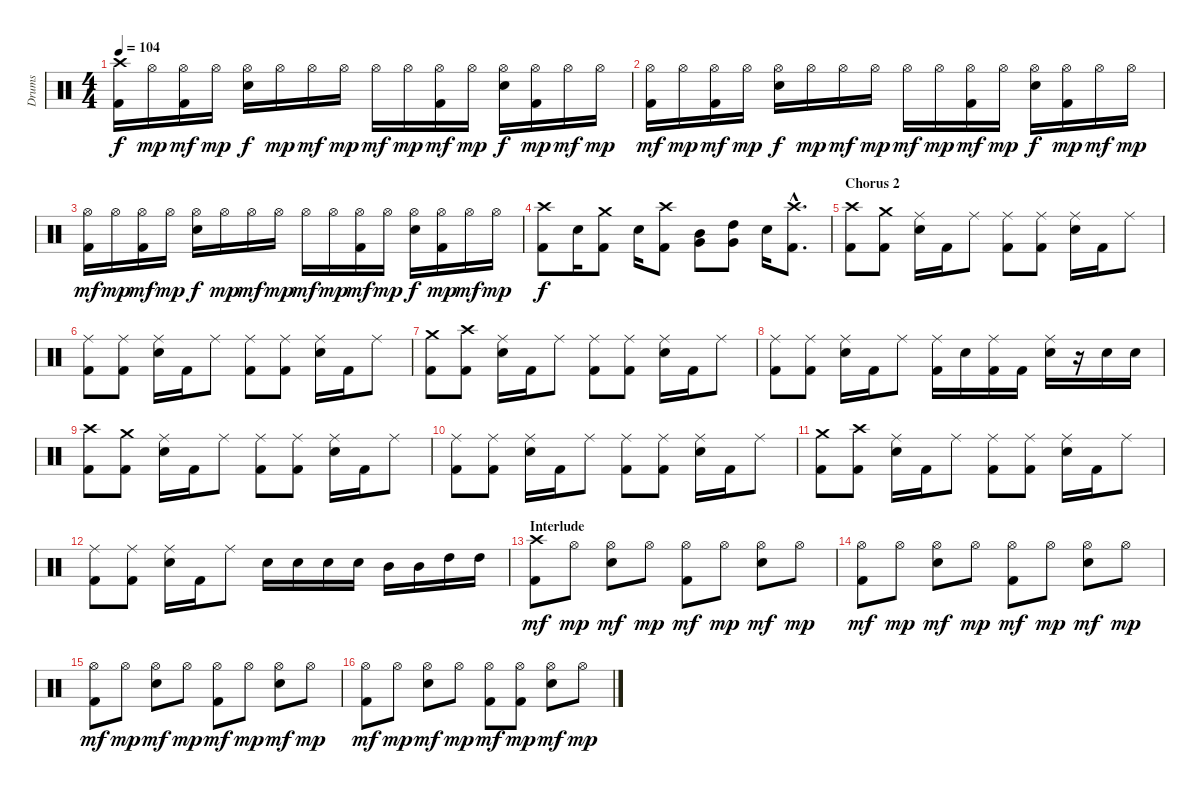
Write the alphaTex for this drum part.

\track ("Drums" "Drums") {instrument percussion}
\staff {score}
\articulation defaults
\ts (4 4)
\tempo 104
\clef neutral
\ks c
("Crash high (hit)" "Kick (hit) 2").16{dy f} "Hi-Hat (open)".16{dy mp} ("Hi-Hat (open)" "Kick (hit) 2").16{dy mf} "Hi-Hat (open)".16{dy mp} ("Hi-Hat (open)" "Electric Snare (hit)").16{dy f} "Hi-Hat (open)".16{dy mp} "Hi-Hat (open)".16{dy mf} "Hi-Hat (open)".16{dy mp} "Hi-Hat (open)".16{dy mf} "Hi-Hat (open)".16{dy mp} ("Hi-Hat (open)" "Kick (hit) 2").16{dy mf} "Hi-Hat (open)".16{dy mp} ("Hi-Hat (open)" "Electric Snare (hit)").16{dy f} ("Hi-Hat (open)" "Kick (hit) 2").16{dy mp} "Hi-Hat (open)".16{dy mf} "Hi-Hat (open)".16{dy mp} |
("Hi-Hat (open)" "Kick (hit) 2").16{dy mf} "Hi-Hat (open)".16{dy mp} ("Hi-Hat (open)" "Kick (hit) 2").16{dy mf} "Hi-Hat (open)".16{dy mp} ("Hi-Hat (open)" "Electric Snare (hit)").16{dy f} "Hi-Hat (open)".16{dy mp} "Hi-Hat (open)".16{dy mf} "Hi-Hat (open)".16{dy mp} "Hi-Hat (open)".16{dy mf} "Hi-Hat (open)".16{dy mp} ("Hi-Hat (open)" "Kick (hit) 2").16{dy mf} "Hi-Hat (open)".16{dy mp} ("Hi-Hat (open)" "Electric Snare (hit)").16{dy f} ("Hi-Hat (open)" "Kick (hit) 2").16{dy mp} "Hi-Hat (open)".16{dy mf} "Hi-Hat (open)".16{dy mp} |
("Hi-Hat (open)" "Kick (hit) 2").16{dy mf} "Hi-Hat (open)".16{dy mp} ("Hi-Hat (open)" "Kick (hit) 2").16{dy mf} "Hi-Hat (open)".16{dy mp} ("Hi-Hat (open)" "Electric Snare (hit)").16{dy f} "Hi-Hat (open)".16{dy mp} "Hi-Hat (open)".16{dy mf} "Hi-Hat (open)".16{dy mp} "Hi-Hat (open)".16{dy mf} "Hi-Hat (open)".16{dy mp} ("Hi-Hat (open)" "Kick (hit) 2").16{dy mf} "Hi-Hat (open)".16{dy mp} ("Hi-Hat (open)" "Electric Snare (hit)").16{dy f} ("Hi-Hat (open)" "Kick (hit) 2").16{dy mp} "Hi-Hat (open)".16{dy mf} "Hi-Hat (open)".16{dy mp} |
("Crash high (hit)" "Kick (hit) 2").8{dy f} "Electric Snare (hit)".16 ("Crash medium (hit)" "Kick (hit) 2").8 "Electric Snare (hit)".16 ("Crash high (hit)" "Kick (hit) 2").8 ("Mid Tom (hit)" "Very Low Tom (hit)").8 ("High Tom (hit)" "Very Low Tom (hit)").8 "Electric Snare (hit)".16 ("Crash high (hit)"{hac} "Kick (hit) 2"{hac}).8{d} |
\section ("" "Chorus 2")
("Crash high (hit)" "Kick (hit) 2").8 ("Crash medium (hit)" "Kick (hit) 2").8 ("Ride (middle)" "Electric Snare (hit)").16 "Kick (hit) 2".16 "Ride (middle)".8 ("Ride (middle)" "Kick (hit) 2").8 ("Ride (middle)" "Kick (hit) 2").8 ("Ride (middle)" "Electric Snare (hit)").16 "Kick (hit) 2".16 "Ride (middle)".8 |
("Ride (middle)" "Kick (hit) 2").8 ("Ride (middle)" "Kick (hit) 2").8 ("Ride (middle)" "Electric Snare (hit)").16 "Kick (hit) 2".16 "Ride (middle)".8 ("Ride (middle)" "Kick (hit) 2").8 ("Ride (middle)" "Kick (hit) 2").8 ("Ride (middle)" "Electric Snare (hit)").16 "Kick (hit) 2".16 "Ride (middle)".8 |
("Crash medium (hit)" "Kick (hit) 2").8 ("Crash high (hit)" "Kick (hit) 2").8 ("Ride (middle)" "Electric Snare (hit)").16 "Kick (hit) 2".16 "Ride (middle)".8 ("Ride (middle)" "Kick (hit) 2").8 ("Ride (middle)" "Kick (hit) 2").8 ("Ride (middle)" "Electric Snare (hit)").16 "Kick (hit) 2".16 "Ride (middle)".8 |
("Ride (middle)" "Kick (hit) 2").8 ("Ride (middle)" "Kick (hit) 2").8 ("Ride (middle)" "Electric Snare (hit)").16 "Kick (hit) 2".16 "Ride (middle)".8 ("Ride (middle)" "Kick (hit) 2").16 "Electric Snare (hit)".16 ("Ride (middle)" "Kick (hit) 2").16 "Kick (hit) 2".16 ("Ride (middle)" "Electric Snare (hit)").16 r.16 "Electric Snare (hit)".16 "Electric Snare (hit)".16 |
("Crash high (hit)" "Kick (hit) 2").8 ("Crash medium (hit)" "Kick (hit) 2").8 ("Ride (middle)" "Electric Snare (hit)").16 "Kick (hit) 2".16 "Ride (middle)".8 ("Ride (middle)" "Kick (hit) 2").8 ("Ride (middle)" "Kick (hit) 2").8 ("Ride (middle)" "Electric Snare (hit)").16 "Kick (hit) 2".16 "Ride (middle)".8 |
("Ride (middle)" "Kick (hit) 2").8 ("Ride (middle)" "Kick (hit) 2").8 ("Ride (middle)" "Electric Snare (hit)").16 "Kick (hit) 2".16 "Ride (middle)".8 ("Ride (middle)" "Kick (hit) 2").8 ("Ride (middle)" "Kick (hit) 2").8 ("Ride (middle)" "Electric Snare (hit)").16 "Kick (hit) 2".16 "Ride (middle)".8 |
("Crash medium (hit)" "Kick (hit) 2").8 ("Crash high (hit)" "Kick (hit) 2").8 ("Ride (middle)" "Electric Snare (hit)").16 "Kick (hit) 2".16 "Ride (middle)".8 ("Ride (middle)" "Kick (hit) 2").8 ("Ride (middle)" "Kick (hit) 2").8 ("Ride (middle)" "Electric Snare (hit)").16 "Kick (hit) 2".16 "Ride (middle)".8 |
("Ride (middle)" "Kick (hit) 2").8 ("Ride (middle)" "Kick (hit) 2").8 ("Ride (middle)" "Electric Snare (hit)").16 "Kick (hit) 2".16 "Ride (middle)".8 "Electric Snare (hit)".16 "Electric Snare (hit)".16 "Electric Snare (hit)".16 "Electric Snare (hit)".16 "Mid Tom (hit)".16 "Mid Tom (hit)".16 "High Tom (hit)".16 "High Tom (hit)".16 |
\section ("" "Interlude")
("Crash high (hit)" "Kick (hit) 2").8{dy mf} "Hi-Hat (open)".8{dy mp} ("Hi-Hat (open)" "Electric Snare (hit)").8{dy mf} "Hi-Hat (open)".8{dy mp} ("Hi-Hat (open)" "Kick (hit) 2").8{dy mf} "Hi-Hat (open)".8{dy mp} ("Hi-Hat (open)" "Electric Snare (hit)").8{dy mf} "Hi-Hat (open)".8{dy mp} |
("Hi-Hat (open)" "Kick (hit) 2").8{dy mf} "Hi-Hat (open)".8{dy mp} ("Hi-Hat (open)" "Electric Snare (hit)").8{dy mf} "Hi-Hat (open)".8{dy mp} ("Hi-Hat (open)" "Kick (hit) 2").8{dy mf} "Hi-Hat (open)".8{dy mp} ("Hi-Hat (open)" "Electric Snare (hit)").8{dy mf} "Hi-Hat (open)".8{dy mp} |
("Hi-Hat (open)" "Kick (hit) 2").8{dy mf} "Hi-Hat (open)".8{dy mp} ("Hi-Hat (open)" "Electric Snare (hit)").8{dy mf} "Hi-Hat (open)".8{dy mp} ("Hi-Hat (open)" "Kick (hit) 2").8{dy mf} "Hi-Hat (open)".8{dy mp} ("Hi-Hat (open)" "Electric Snare (hit)").8{dy mf} "Hi-Hat (open)".8{dy mp} |
("Hi-Hat (open)" "Kick (hit) 2").8{dy mf} "Hi-Hat (open)".8{dy mp} ("Hi-Hat (open)" "Electric Snare (hit)").8{dy mf} "Hi-Hat (open)".8{dy mp} ("Hi-Hat (open)" "Kick (hit) 2").8{dy mf} ("Hi-Hat (open)" "Kick (hit) 2").8{dy mp} ("Hi-Hat (open)" "Electric Snare (hit)").8{dy mf} "Hi-Hat (open)".8{dy mp}
